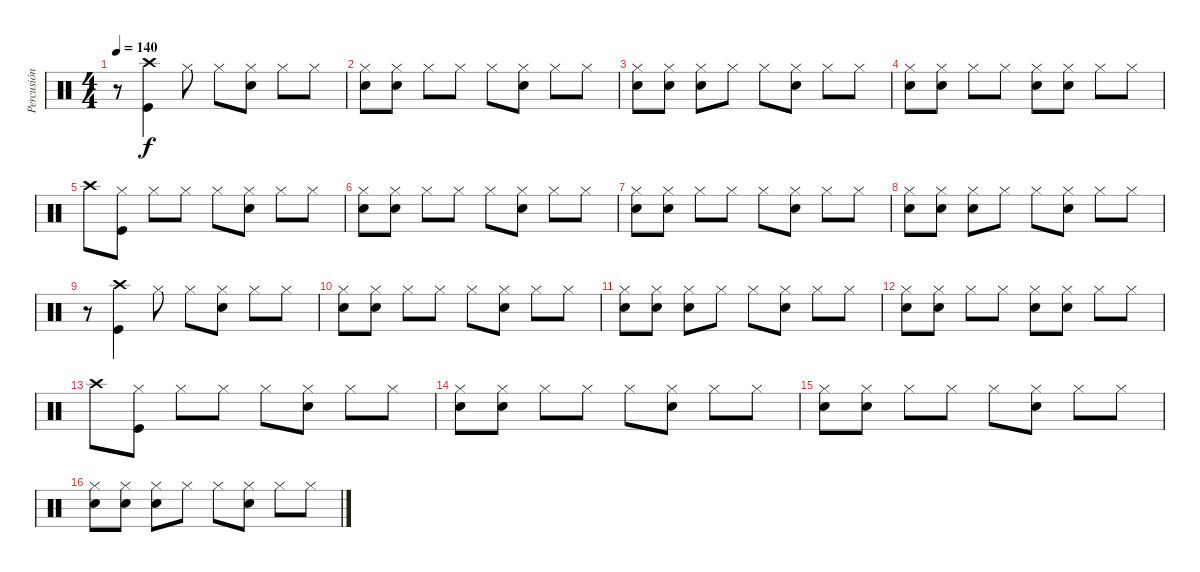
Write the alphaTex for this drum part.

\track ("Percusión" "Percusión") {instrument percussion}
\staff {score}
\articulation defaults
\ts (4 4)
\tempo 140
\clef neutral
\ks c
r.8{dy f} ("Crash high (hit)" "Kick (hit)").4 "Hi-Hat (closed)".8 "Hi-Hat (closed)".8 ("Hi-Hat (closed)" "Snare (hit) 2").8 "Hi-Hat (closed)".8 "Hi-Hat (closed)".8 |
("Hi-Hat (closed)" "Snare (hit) 2").8 ("Hi-Hat (closed)" "Snare (hit) 2").8 "Hi-Hat (closed)".8 "Hi-Hat (closed)".8 "Hi-Hat (closed)".8 ("Hi-Hat (closed)" "Snare (hit) 2").8 "Hi-Hat (closed)".8 "Hi-Hat (closed)".8 |
("Hi-Hat (closed)" "Snare (hit) 2").8 ("Hi-Hat (closed)" "Snare (hit) 2").8 ("Hi-Hat (closed)" "Snare (hit) 2").8 "Hi-Hat (closed)".8 "Hi-Hat (closed)".8 ("Hi-Hat (closed)" "Snare (hit) 2").8 "Hi-Hat (closed)".8 "Hi-Hat (closed)".8 |
("Hi-Hat (closed)" "Snare (hit) 2").8 ("Hi-Hat (closed)" "Snare (hit) 2").8 "Hi-Hat (closed)".8 "Hi-Hat (closed)".8 ("Hi-Hat (closed)" "Snare (hit) 2").8 ("Hi-Hat (closed)" "Snare (hit) 2").8 "Hi-Hat (closed)".8 "Hi-Hat (closed)".8 |
"Crash high (hit)".8 ("Hi-Hat (closed)" "Kick (hit)").8 "Hi-Hat (closed)".8 "Hi-Hat (closed)".8 "Hi-Hat (closed)".8 ("Hi-Hat (closed)" "Snare (hit) 2").8 "Hi-Hat (closed)".8 "Hi-Hat (closed)".8 |
("Hi-Hat (closed)" "Snare (hit) 2").8 ("Hi-Hat (closed)" "Snare (hit) 2").8 "Hi-Hat (closed)".8 "Hi-Hat (closed)".8 "Hi-Hat (closed)".8 ("Hi-Hat (closed)" "Snare (hit) 2").8 "Hi-Hat (closed)".8 "Hi-Hat (closed)".8 |
("Hi-Hat (closed)" "Snare (hit) 2").8 ("Hi-Hat (closed)" "Snare (hit) 2").8 "Hi-Hat (closed)".8 "Hi-Hat (closed)".8 "Hi-Hat (closed)".8 ("Hi-Hat (closed)" "Snare (hit) 2").8 "Hi-Hat (closed)".8 "Hi-Hat (closed)".8 |
("Hi-Hat (closed)" "Snare (hit) 2").8 ("Hi-Hat (closed)" "Snare (hit) 2").8 ("Hi-Hat (closed)" "Snare (hit) 2").8 "Hi-Hat (closed)".8 "Hi-Hat (closed)".8 ("Hi-Hat (closed)" "Snare (hit) 2").8 "Hi-Hat (closed)".8 "Hi-Hat (closed)".8 |
r.8 ("Crash high (hit)" "Kick (hit)").4 "Hi-Hat (closed)".8 "Hi-Hat (closed)".8 ("Hi-Hat (closed)" "Snare (hit) 2").8 "Hi-Hat (closed)".8 "Hi-Hat (closed)".8 |
("Hi-Hat (closed)" "Snare (hit) 2").8 ("Hi-Hat (closed)" "Snare (hit) 2").8 "Hi-Hat (closed)".8 "Hi-Hat (closed)".8 "Hi-Hat (closed)".8 ("Hi-Hat (closed)" "Snare (hit) 2").8 "Hi-Hat (closed)".8 "Hi-Hat (closed)".8 |
("Hi-Hat (closed)" "Snare (hit) 2").8 ("Hi-Hat (closed)" "Snare (hit) 2").8 ("Hi-Hat (closed)" "Snare (hit) 2").8 "Hi-Hat (closed)".8 "Hi-Hat (closed)".8 ("Hi-Hat (closed)" "Snare (hit) 2").8 "Hi-Hat (closed)".8 "Hi-Hat (closed)".8 |
("Hi-Hat (closed)" "Snare (hit) 2").8 ("Hi-Hat (closed)" "Snare (hit) 2").8 "Hi-Hat (closed)".8 "Hi-Hat (closed)".8 ("Hi-Hat (closed)" "Snare (hit) 2").8 ("Hi-Hat (closed)" "Snare (hit) 2").8 "Hi-Hat (closed)".8 "Hi-Hat (closed)".8 |
"Crash high (hit)".8 ("Hi-Hat (closed)" "Kick (hit)").8 "Hi-Hat (closed)".8 "Hi-Hat (closed)".8 "Hi-Hat (closed)".8 ("Hi-Hat (closed)" "Snare (hit) 2").8 "Hi-Hat (closed)".8 "Hi-Hat (closed)".8 |
("Hi-Hat (closed)" "Snare (hit) 2").8 ("Hi-Hat (closed)" "Snare (hit) 2").8 "Hi-Hat (closed)".8 "Hi-Hat (closed)".8 "Hi-Hat (closed)".8 ("Hi-Hat (closed)" "Snare (hit) 2").8 "Hi-Hat (closed)".8 "Hi-Hat (closed)".8 |
("Hi-Hat (closed)" "Snare (hit) 2").8 ("Hi-Hat (closed)" "Snare (hit) 2").8 "Hi-Hat (closed)".8 "Hi-Hat (closed)".8 "Hi-Hat (closed)".8 ("Hi-Hat (closed)" "Snare (hit) 2").8 "Hi-Hat (closed)".8 "Hi-Hat (closed)".8 |
("Hi-Hat (closed)" "Snare (hit) 2").8 ("Hi-Hat (closed)" "Snare (hit) 2").8 ("Hi-Hat (closed)" "Snare (hit) 2").8 "Hi-Hat (closed)".8 "Hi-Hat (closed)".8 ("Hi-Hat (closed)" "Snare (hit) 2").8 "Hi-Hat (closed)".8 "Hi-Hat (closed)".8
